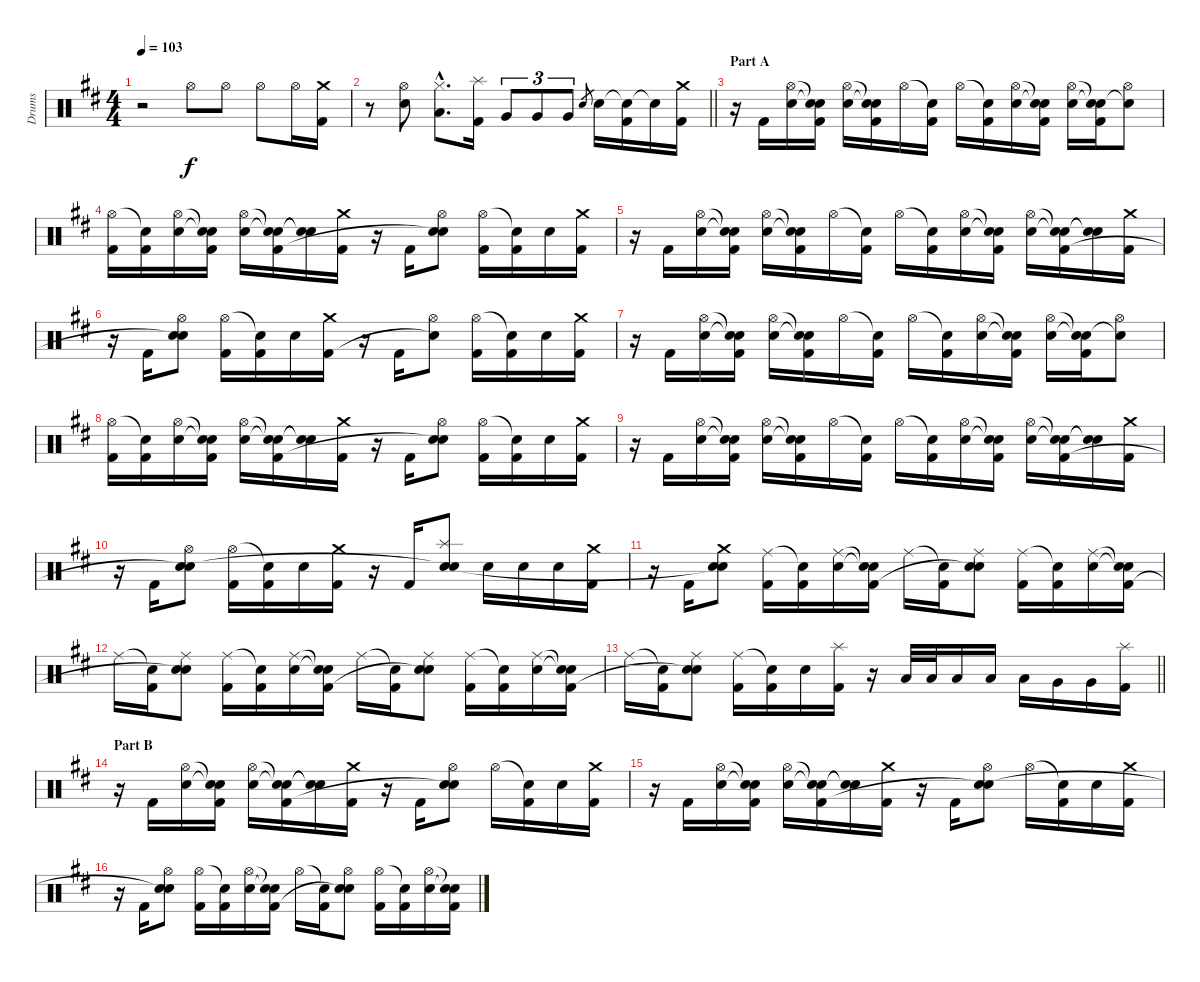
\track ("Drums" "Drums") {instrument percussion}
\staff {score}
\articulation defaults
\ts (4 4)
\tempo 103
\clef neutral
\ks d
r.2{dy f} "Hi-Hat (open)".8 "Hi-Hat (open)".8 "Hi-Hat (open)".8 "Hi-Hat (open)".16 ("Crash medium (hit)" "Kick (hit) 2").16 |
\barLineRight lightlight
r.8 ("Hi-Hat (open)" "Electric Snare (hit)").8 ("Hi-Hat (closed)"{hac} "Low Floor Tom (hit)"{hac}).8{d} ("Splash (hit)" "Kick (hit) 2").16 "Very Low Tom (hit)".8{tu (3 2)} "Very Low Tom (hit)".8{tu (3 2)} "Very Low Tom (hit)".8{tu (3 2)} "Electric Snare (hit)".8{gr} "Electric Snare (hit)".16 ("Snare (hit)"{t} "Kick (hit) 2").16 "Snare (hit)"{t}.16 ("Crash medium (hit)" "Kick (hit) 2").16 |
\section ("" "Part A")
r.16 "Kick (hit) 2".16 ("Hi-Hat (open)" "Electric Snare (hit)").16 ("Snare (hit)"{t} "Snare (hit)"{t} "Kick (hit) 2").16 ("Hi-Hat (open)" "Electric Snare (hit)").16 ("Snare (hit)"{t} "Snare (hit)"{t} "Kick (hit) 2").16 "Hi-Hat (open)".16 ("Snare (hit)"{t} "Kick (hit) 2").16 "Hi-Hat (open)".16 ("Snare (hit)"{t} "Kick (hit) 2").16 ("Hi-Hat (open)" "Electric Snare (hit)").16 ("Snare (hit)"{t} "Snare (hit)"{t} "Kick (hit) 2").16 ("Hi-Hat (open)" "Electric Snare (hit)").16 ("Snare (hit)"{t} "Snare (hit)"{t} "Kick (hit) 2").16 ("Hi-Hat (open)" "Snare (hit)"{t}).8 |
("Hi-Hat (open)" "Kick (hit) 2").16 ("Snare (hit)"{t} "Kick (hit) 2").16 ("Hi-Hat (open)" "Electric Snare (hit)").16 ("Snare (hit)"{t} "Snare (hit)"{t} "Kick (hit) 2").16 ("Hi-Hat (open)" "Electric Snare (hit)").16 ("Snare (hit)"{t} "Snare (hit)"{t} "Kick (hit) 2").16 ("Snare (hit)"{t} "Snare (hit)"{t}).16 ("Crash medium (hit)" "Kick (hit) 2").16 r.16 "Kick (hit) 2".16 ("Hi-Hat (open)" "Electric Snare (hit)" "Snare (hit)"{t}).8 ("Hi-Hat (open)" "Kick (hit) 2").16 ("Snare (hit)"{t} "Kick (hit) 2").16 "Electric Snare (hit)".16 ("Crash medium (hit)" "Kick (hit) 2").16 |
r.16 "Kick (hit) 2".16 ("Hi-Hat (open)" "Electric Snare (hit)").16 ("Snare (hit)"{t} "Snare (hit)"{t} "Kick (hit) 2").16 ("Hi-Hat (open)" "Electric Snare (hit)").16 ("Snare (hit)"{t} "Snare (hit)"{t} "Kick (hit) 2").16 "Hi-Hat (open)".16 ("Snare (hit)"{t} "Kick (hit) 2").16 "Hi-Hat (open)".16 ("Snare (hit)"{t} "Kick (hit) 2").16 ("Hi-Hat (open)" "Electric Snare (hit)").16 ("Snare (hit)"{t} "Snare (hit)"{t} "Kick (hit) 2").16 ("Hi-Hat (open)" "Electric Snare (hit)").16 ("Snare (hit)"{t} "Snare (hit)"{t} "Kick (hit) 2").16 ("Snare (hit)"{t} "Snare (hit)"{t}).16 ("Crash medium (hit)" "Kick (hit) 2").16 |
r.16 "Kick (hit) 2".16 ("Hi-Hat (open)" "Electric Snare (hit)" "Snare (hit)"{t}).8 ("Hi-Hat (open)" "Kick (hit) 2").16 ("Snare (hit)"{t} "Kick (hit) 2").16 "Electric Snare (hit)".16 ("Crash medium (hit)" "Kick (hit) 2").16 r.16 "Kick (hit) 2".16 ("Hi-Hat (open)" "Snare (hit)"{t}).8 ("Hi-Hat (open)" "Kick (hit) 2").16 ("Snare (hit)"{t} "Kick (hit) 2").16 "Electric Snare (hit)".16 ("Crash medium (hit)" "Kick (hit) 2").16 |
r.16 "Kick (hit) 2".16 ("Hi-Hat (open)" "Electric Snare (hit)").16 ("Snare (hit)"{t} "Snare (hit)"{t} "Kick (hit) 2").16 ("Hi-Hat (open)" "Electric Snare (hit)").16 ("Snare (hit)"{t} "Snare (hit)"{t} "Kick (hit) 2").16 "Hi-Hat (open)".16 ("Snare (hit)"{t} "Kick (hit) 2").16 "Hi-Hat (open)".16 ("Snare (hit)"{t} "Kick (hit) 2").16 ("Hi-Hat (open)" "Electric Snare (hit)").16 ("Snare (hit)"{t} "Snare (hit)"{t} "Kick (hit) 2").16 ("Hi-Hat (open)" "Electric Snare (hit)").16 ("Snare (hit)"{t} "Snare (hit)"{t} "Kick (hit) 2").16 ("Hi-Hat (open)" "Snare (hit)"{t}).8 |
("Hi-Hat (open)" "Kick (hit) 2").16 ("Snare (hit)"{t} "Kick (hit) 2").16 ("Hi-Hat (open)" "Electric Snare (hit)").16 ("Snare (hit)"{t} "Snare (hit)"{t} "Kick (hit) 2").16 ("Hi-Hat (open)" "Electric Snare (hit)").16 ("Snare (hit)"{t} "Snare (hit)"{t} "Kick (hit) 2").16 ("Snare (hit)"{t} "Snare (hit)"{t}).16 ("Crash medium (hit)" "Kick (hit) 2").16 r.16 "Kick (hit) 2".16 ("Hi-Hat (open)" "Electric Snare (hit)" "Snare (hit)"{t}).8 ("Hi-Hat (open)" "Kick (hit) 2").16 ("Snare (hit)"{t} "Kick (hit) 2").16 "Electric Snare (hit)".16 ("Crash medium (hit)" "Kick (hit) 2").16 |
r.16 "Kick (hit) 2".16 ("Hi-Hat (open)" "Electric Snare (hit)").16 ("Snare (hit)"{t} "Snare (hit)"{t} "Kick (hit) 2").16 ("Hi-Hat (open)" "Electric Snare (hit)").16 ("Snare (hit)"{t} "Snare (hit)"{t} "Kick (hit) 2").16 "Hi-Hat (open)".16 ("Snare (hit)"{t} "Kick (hit) 2").16 "Hi-Hat (open)".16 ("Snare (hit)"{t} "Kick (hit) 2").16 ("Hi-Hat (open)" "Electric Snare (hit)").16 ("Snare (hit)"{t} "Snare (hit)"{t} "Kick (hit) 2").16 ("Hi-Hat (open)" "Electric Snare (hit)").16 ("Snare (hit)"{t} "Snare (hit)"{t} "Kick (hit) 2").16 ("Snare (hit)"{t} "Snare (hit)"{t}).16 ("Crash medium (hit)" "Kick (hit) 2").16 |
r.16 "Kick (hit) 2".16 ("Hi-Hat (open)" "Electric Snare (hit)" "Snare (hit)"{t}).8 ("Hi-Hat (open)" "Kick (hit) 2").16 ("Snare (hit)"{t} "Kick (hit) 2").16 "Electric Snare (hit)".16 ("Crash medium (hit)" "Kick (hit) 2").16 r.16 "Kick (hit) 2".16 ("Splash (hit)" "Electric Snare (hit)" "Snare (hit)"{t}).8 "Electric Snare (hit)".16 "Electric Snare (hit)".16 "Electric Snare (hit)".16 ("Crash medium (hit)" "Kick (hit) 2").16 |
r.16 "Kick (hit) 2".16 ("Crash medium (hit)" "Electric Snare (hit)" "Snare (hit)"{t}).8 ("Ride (middle)" "Kick (hit) 2").16 ("Snare (hit)"{t} "Kick (hit) 2").16 ("Ride (middle)" "Electric Snare (hit)").16 ("Snare (hit)"{t} "Snare (hit)"{t} "Kick (hit) 2").16 "Ride (middle)".16 ("Snare (hit)"{t} "Kick (hit) 2").16 ("Ride (middle)" "Electric Snare (hit)" "Snare (hit)"{t}).8 ("Ride (middle)" "Kick (hit) 2").16 ("Snare (hit)"{t} "Kick (hit) 2").16 ("Ride (middle)" "Electric Snare (hit)").16 ("Snare (hit)"{t} "Snare (hit)"{t} "Kick (hit) 2").16 |
"Ride (middle)".16 ("Snare (hit)"{t} "Kick (hit) 2").16 ("Ride (middle)" "Electric Snare (hit)" "Snare (hit)"{t}).8 ("Ride (middle)" "Kick (hit) 2").16 ("Snare (hit)"{t} "Kick (hit) 2").16 ("Ride (middle)" "Electric Snare (hit)").16 ("Snare (hit)"{t} "Snare (hit)"{t} "Kick (hit) 2").16 "Ride (middle)".16 ("Snare (hit)"{t} "Kick (hit) 2").16 ("Ride (middle)" "Electric Snare (hit)" "Snare (hit)"{t}).8 ("Ride (middle)" "Kick (hit) 2").16 ("Snare (hit)"{t} "Kick (hit) 2").16 ("Ride (middle)" "Electric Snare (hit)").16 ("Snare (hit)"{t} "Snare (hit)"{t} "Kick (hit) 2").16 |
\barLineRight lightlight "Ride (middle)".16
("Snare (hit)"{t} "Kick (hit) 2").16 ("Ride (middle)" "Electric Snare (hit)" "Snare (hit)"{t}).8 ("Ride (middle)" "Kick (hit) 2").16 ("Snare (hit)"{t} "Kick (hit) 2").16 "Electric Snare (hit)".16 ("Splash (hit)" "Kick (hit) 2").16 r.16 "Low Tom (hit)".32 "Low Tom (hit)".32 "Low Tom (hit)".16 "Low Tom (hit)".16 "Low Tom (hit)".16 "Very Low Tom (hit)".16 "Very Low Tom (hit)".16 ("Splash (hit)" "Kick (hit) 2").16 |
\section ("" "Part B")
r.16 "Kick (hit) 2".16 ("Hi-Hat (open)" "Electric Snare (hit)").16 ("Snare (hit)"{t} "Snare (hit)"{t} "Kick (hit) 2").16 ("Hi-Hat (open)" "Electric Snare (hit)").16 ("Snare (hit)"{t} "Snare (hit)"{t} "Kick (hit) 2").16 ("Snare (hit)"{t} "Snare (hit)"{t}).16 ("Crash medium (hit)" "Kick (hit) 2").16 r.16 "Kick (hit) 2".16 ("Hi-Hat (open)" "Electric Snare (hit)" "Snare (hit)"{t}).8 "Hi-Hat (open)".16 ("Snare (hit)"{t} "Kick (hit) 2").16 "Electric Snare (hit)".16 ("Crash medium (hit)" "Kick (hit) 2").16 |
r.16 "Kick (hit) 2".16 ("Hi-Hat (open)" "Electric Snare (hit)").16 ("Snare (hit)"{t} "Snare (hit)"{t} "Kick (hit) 2").16 ("Hi-Hat (open)" "Electric Snare (hit)").16 ("Snare (hit)"{t} "Snare (hit)"{t} "Kick (hit) 2").16 ("Snare (hit)"{t} "Snare (hit)"{t}).16 ("Crash medium (hit)" "Kick (hit) 2").16 r.16 "Kick (hit) 2".16 ("Hi-Hat (open)" "Electric Snare (hit)" "Snare (hit)"{t}).8 "Hi-Hat (open)".16 ("Snare (hit)"{t} "Kick (hit) 2").16 "Electric Snare (hit)".16 ("Crash medium (hit)" "Kick (hit) 2").16 |
r.16 "Kick (hit) 2".16 ("Hi-Hat (open)" "Electric Snare (hit)" "Snare (hit)"{t}).8 ("Hi-Hat (open)" "Kick (hit) 2").16 ("Snare (hit)"{t} "Kick (hit) 2").16 ("Hi-Hat (open)" "Electric Snare (hit)").16 ("Snare (hit)"{t} "Snare (hit)"{t} "Kick (hit) 2").16 "Hi-Hat (open)".16 ("Snare (hit)"{t} "Kick (hit) 2").16 ("Hi-Hat (open)" "Electric Snare (hit)" "Snare (hit)"{t}).8 ("Hi-Hat (open)" "Kick (hit) 2").16 ("Snare (hit)"{t} "Kick (hit) 2").16 ("Hi-Hat (open)" "Electric Snare (hit)").16 ("Snare (hit)"{t} "Snare (hit)"{t} "Kick (hit) 2").16
